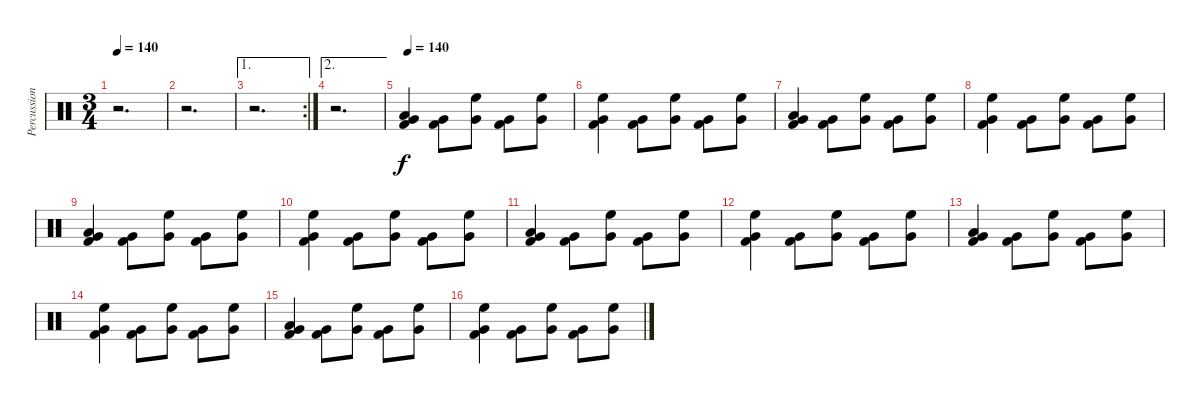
\track ("Percussions" "Percussion") {instrument percussion}
\staff {score}
\articulation defaults
\ts (3 4)
\tempo 140
\clef neutral
\ks c
r.2{d dy f} |
r.2{d} |
\ae 1
\rc 2
r.2{d} |
\ae 2
r.2{d} |
\tempo 140
("Low Floor Tom (hit)" "Very Low Tom (hit)" "Kick (hit) 2").4 ("Very Low Tom (hit)" "Kick (hit) 2").8 ("High Floor Tom (hit)" "Very Low Tom (hit)").8 ("Very Low Tom (hit)" "Kick (hit) 2").8 ("High Floor Tom (hit)" "Very Low Tom (hit)").8 |
("High Floor Tom (hit)" "Very Low Tom (hit)" "Kick (hit) 2").4 ("Very Low Tom (hit)" "Kick (hit) 2").8 ("High Floor Tom (hit)" "Very Low Tom (hit)").8 ("Very Low Tom (hit)" "Kick (hit) 2").8 ("High Floor Tom (hit)" "Very Low Tom (hit)").8 |
("Low Floor Tom (hit)" "Very Low Tom (hit)" "Kick (hit) 2").4 ("Very Low Tom (hit)" "Kick (hit) 2").8 ("High Floor Tom (hit)" "Very Low Tom (hit)").8 ("Very Low Tom (hit)" "Kick (hit) 2").8 ("High Floor Tom (hit)" "Very Low Tom (hit)").8 |
("High Floor Tom (hit)" "Very Low Tom (hit)" "Kick (hit) 2").4 ("Very Low Tom (hit)" "Kick (hit) 2").8 ("High Floor Tom (hit)" "Very Low Tom (hit)").8 ("Very Low Tom (hit)" "Kick (hit) 2").8 ("High Floor Tom (hit)" "Very Low Tom (hit)").8 |
("Low Floor Tom (hit)" "Very Low Tom (hit)" "Kick (hit) 2").4 ("Very Low Tom (hit)" "Kick (hit) 2").8 ("High Floor Tom (hit)" "Very Low Tom (hit)").8 ("Very Low Tom (hit)" "Kick (hit) 2").8 ("High Floor Tom (hit)" "Very Low Tom (hit)").8 |
("High Floor Tom (hit)" "Very Low Tom (hit)" "Kick (hit) 2").4 ("Very Low Tom (hit)" "Kick (hit) 2").8 ("High Floor Tom (hit)" "Very Low Tom (hit)").8 ("Very Low Tom (hit)" "Kick (hit) 2").8 ("High Floor Tom (hit)" "Very Low Tom (hit)").8 |
("Low Floor Tom (hit)" "Very Low Tom (hit)" "Kick (hit) 2").4 ("Very Low Tom (hit)" "Kick (hit) 2").8 ("High Floor Tom (hit)" "Very Low Tom (hit)").8 ("Very Low Tom (hit)" "Kick (hit) 2").8 ("High Floor Tom (hit)" "Very Low Tom (hit)").8 |
("High Floor Tom (hit)" "Very Low Tom (hit)" "Kick (hit) 2").4 ("Very Low Tom (hit)" "Kick (hit) 2").8 ("High Floor Tom (hit)" "Very Low Tom (hit)").8 ("Very Low Tom (hit)" "Kick (hit) 2").8 ("High Floor Tom (hit)" "Very Low Tom (hit)").8 |
("Low Floor Tom (hit)" "Very Low Tom (hit)" "Kick (hit) 2").4 ("Very Low Tom (hit)" "Kick (hit) 2").8 ("High Floor Tom (hit)" "Very Low Tom (hit)").8 ("Very Low Tom (hit)" "Kick (hit) 2").8 ("High Floor Tom (hit)" "Very Low Tom (hit)").8 |
("High Floor Tom (hit)" "Very Low Tom (hit)" "Kick (hit) 2").4 ("Very Low Tom (hit)" "Kick (hit) 2").8 ("High Floor Tom (hit)" "Very Low Tom (hit)").8 ("Very Low Tom (hit)" "Kick (hit) 2").8 ("High Floor Tom (hit)" "Very Low Tom (hit)").8 |
("Low Floor Tom (hit)" "Very Low Tom (hit)" "Kick (hit) 2").4 ("Very Low Tom (hit)" "Kick (hit) 2").8 ("High Floor Tom (hit)" "Very Low Tom (hit)").8 ("Very Low Tom (hit)" "Kick (hit) 2").8 ("High Floor Tom (hit)" "Very Low Tom (hit)").8 |
("High Floor Tom (hit)" "Very Low Tom (hit)" "Kick (hit) 2").4 ("Very Low Tom (hit)" "Kick (hit) 2").8 ("High Floor Tom (hit)" "Very Low Tom (hit)").8 ("Very Low Tom (hit)" "Kick (hit) 2").8 ("High Floor Tom (hit)" "Very Low Tom (hit)").8
